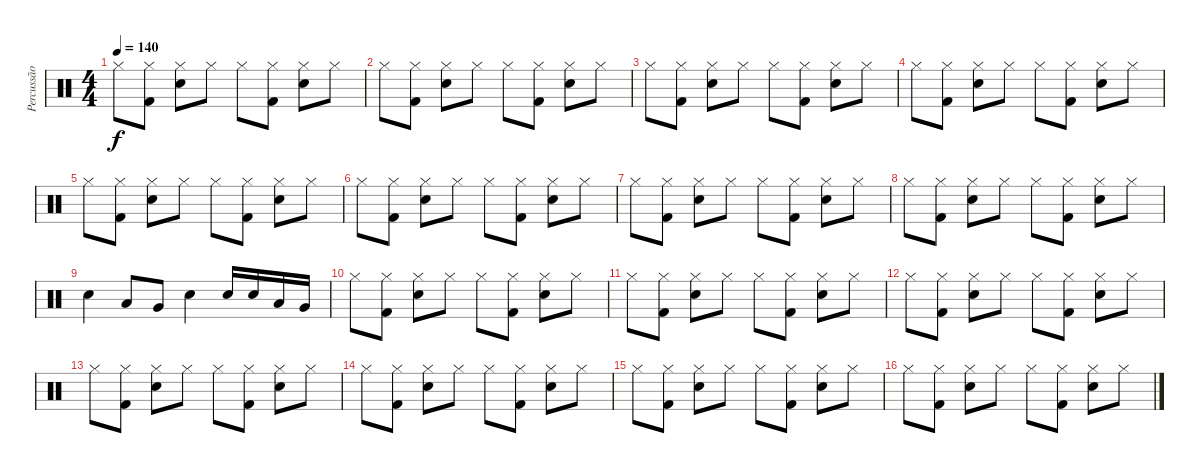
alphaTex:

\track ("Percussão" "Percussão") {instrument percussion}
\staff {score}
\articulation defaults
\ts (4 4)
\tempo 140
\clef neutral
\ks c "Hi-Hat (closed)".8{dy f}
("Kick (hit) 2" "Hi-Hat (closed)").8 ("Snare (hit) 2" "Hi-Hat (closed)").8 "Hi-Hat (closed)".8 "Hi-Hat (closed)".8 ("Kick (hit) 2" "Hi-Hat (closed)").8 ("Hi-Hat (closed)" "Snare (hit) 2").8 "Hi-Hat (closed)".8 |
"Hi-Hat (closed)".8 ("Kick (hit) 2" "Hi-Hat (closed)").8 ("Snare (hit) 2" "Hi-Hat (closed)").8 "Hi-Hat (closed)".8 "Hi-Hat (closed)".8 ("Kick (hit) 2" "Hi-Hat (closed)").8 ("Hi-Hat (closed)" "Snare (hit) 2").8 "Hi-Hat (closed)".8 |
"Hi-Hat (closed)".8 ("Kick (hit) 2" "Hi-Hat (closed)").8 ("Snare (hit) 2" "Hi-Hat (closed)").8 "Hi-Hat (closed)".8 "Hi-Hat (closed)".8 ("Kick (hit) 2" "Hi-Hat (closed)").8 ("Hi-Hat (closed)" "Snare (hit) 2").8 "Hi-Hat (closed)".8 |
"Hi-Hat (closed)".8 ("Kick (hit) 2" "Hi-Hat (closed)").8 ("Snare (hit) 2" "Hi-Hat (closed)").8 "Hi-Hat (closed)".8 "Hi-Hat (closed)".8 ("Kick (hit) 2" "Hi-Hat (closed)").8 ("Hi-Hat (closed)" "Snare (hit) 2").8 "Hi-Hat (closed)".8 |
"Hi-Hat (closed)".8 ("Kick (hit) 2" "Hi-Hat (closed)").8 ("Snare (hit) 2" "Hi-Hat (closed)").8 "Hi-Hat (closed)".8 "Hi-Hat (closed)".8 ("Kick (hit) 2" "Hi-Hat (closed)").8 ("Hi-Hat (closed)" "Snare (hit) 2").8 "Hi-Hat (closed)".8 |
"Hi-Hat (closed)".8 ("Kick (hit) 2" "Hi-Hat (closed)").8 ("Snare (hit) 2" "Hi-Hat (closed)").8 "Hi-Hat (closed)".8 "Hi-Hat (closed)".8 ("Kick (hit) 2" "Hi-Hat (closed)").8 ("Hi-Hat (closed)" "Snare (hit) 2").8 "Hi-Hat (closed)".8 |
"Hi-Hat (closed)".8 ("Kick (hit) 2" "Hi-Hat (closed)").8 ("Snare (hit) 2" "Hi-Hat (closed)").8 "Hi-Hat (closed)".8 "Hi-Hat (closed)".8 ("Kick (hit) 2" "Hi-Hat (closed)").8 ("Hi-Hat (closed)" "Snare (hit) 2").8 "Hi-Hat (closed)".8 |
"Hi-Hat (closed)".8 ("Kick (hit) 2" "Hi-Hat (closed)").8 ("Snare (hit) 2" "Hi-Hat (closed)").8 "Hi-Hat (closed)".8 "Hi-Hat (closed)".8 ("Kick (hit) 2" "Hi-Hat (closed)").8 ("Hi-Hat (closed)" "Snare (hit) 2").8 "Hi-Hat (closed)".8 |
"Snare (hit) 2".4 "Low Tom (hit)".8 "Very Low Tom (hit)".8 "Snare (hit) 2".4 "Snare (hit) 2".16 "Snare (hit) 2".16 "Low Tom (hit)".16 "Very Low Tom (hit)".16 |
"Hi-Hat (closed)".8 ("Kick (hit) 2" "Hi-Hat (closed)").8 ("Snare (hit) 2" "Hi-Hat (closed)").8 "Hi-Hat (closed)".8 "Hi-Hat (closed)".8 ("Kick (hit) 2" "Hi-Hat (closed)").8 ("Hi-Hat (closed)" "Snare (hit) 2").8 "Hi-Hat (closed)".8 |
"Hi-Hat (closed)".8 ("Kick (hit) 2" "Hi-Hat (closed)").8 ("Snare (hit) 2" "Hi-Hat (closed)").8 "Hi-Hat (closed)".8 "Hi-Hat (closed)".8 ("Kick (hit) 2" "Hi-Hat (closed)").8 ("Hi-Hat (closed)" "Snare (hit) 2").8 "Hi-Hat (closed)".8 |
"Hi-Hat (closed)".8 ("Kick (hit) 2" "Hi-Hat (closed)").8 ("Snare (hit) 2" "Hi-Hat (closed)").8 "Hi-Hat (closed)".8 "Hi-Hat (closed)".8 ("Kick (hit) 2" "Hi-Hat (closed)").8 ("Hi-Hat (closed)" "Snare (hit) 2").8 "Hi-Hat (closed)".8 |
"Hi-Hat (closed)".8 ("Kick (hit) 2" "Hi-Hat (closed)").8 ("Snare (hit) 2" "Hi-Hat (closed)").8 "Hi-Hat (closed)".8 "Hi-Hat (closed)".8 ("Kick (hit) 2" "Hi-Hat (closed)").8 ("Hi-Hat (closed)" "Snare (hit) 2").8 "Hi-Hat (closed)".8 |
"Hi-Hat (closed)".8 ("Kick (hit) 2" "Hi-Hat (closed)").8 ("Snare (hit) 2" "Hi-Hat (closed)").8 "Hi-Hat (closed)".8 "Hi-Hat (closed)".8 ("Kick (hit) 2" "Hi-Hat (closed)").8 ("Hi-Hat (closed)" "Snare (hit) 2").8 "Hi-Hat (closed)".8 |
"Hi-Hat (closed)".8 ("Kick (hit) 2" "Hi-Hat (closed)").8 ("Snare (hit) 2" "Hi-Hat (closed)").8 "Hi-Hat (closed)".8 "Hi-Hat (closed)".8 ("Kick (hit) 2" "Hi-Hat (closed)").8 ("Hi-Hat (closed)" "Snare (hit) 2").8 "Hi-Hat (closed)".8 |
"Hi-Hat (closed)".8 ("Kick (hit) 2" "Hi-Hat (closed)").8 ("Snare (hit) 2" "Hi-Hat (closed)").8 "Hi-Hat (closed)".8 "Hi-Hat (closed)".8 ("Kick (hit) 2" "Hi-Hat (closed)").8 ("Hi-Hat (closed)" "Snare (hit) 2").8 "Hi-Hat (closed)".8
